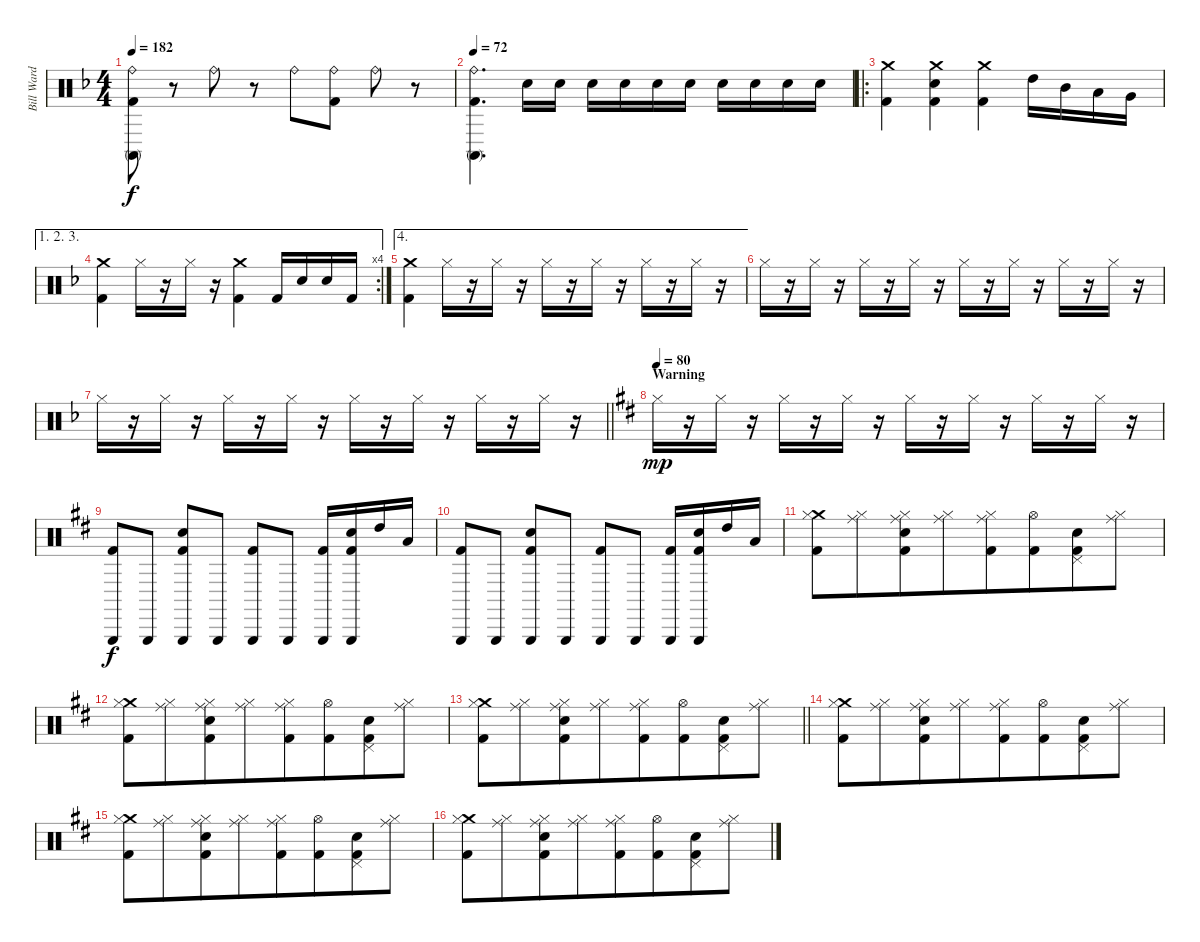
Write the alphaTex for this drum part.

\track ("Bill Ward" "Bill Ward") {instrument percussion}
\staff {score}
\articulation defaults
\ts (4 4)
\tempo 182
\clef neutral
\ks f
("Ride (bell)" "Conga high (mute)" "Kick (hit) 2").8{dy f} r.8 "Ride (bell)".8 r.8 "Ride (bell)".8 ("Ride (bell)" "Kick (hit) 2").8 "Ride (bell)".8 r.8 |
\tempo 72
("Ride (bell)" "Conga high (mute)" "Kick (hit) 2").4{d} "Snare (hit) 2".16 "Snare (hit) 2".16 "Snare (hit) 2".16 "Snare (hit) 2".16 "Snare (hit) 2".16 "Snare (hit) 2".16 "Snare (hit) 2".16 "Snare (hit) 2".16 "Snare (hit) 2".16 "Snare (hit) 2".16 |
\ro
("Crash medium (hit)" "Kick (hit) 2").4 ("Crash medium (hit)" "Snare (hit) 2" "Kick (hit) 2").4 ("Crash medium (hit)" "Kick (hit) 2").4 "High Tom (hit)".16 "Mid Tom (hit)".16 "Low Tom (hit)".16 "Very Low Tom (hit)".16 |
\ae (1 2 3)
\rc 4
("Crash medium (hit)" "Kick (hit) 2").4 "Hi-Hat (closed)".16 r.16 "Hi-Hat (closed)".16 r.16 ("Crash medium (hit)" "Kick (hit) 2").4 "Kick (hit) 2".16 "Snare (hit) 2".16 "Snare (hit) 2".16 "Kick (hit) 2".16 |
\ae 4
("Crash medium (hit)" "Kick (hit) 2").4 "Hi-Hat (closed)".16 r.16 "Hi-Hat (closed)".16 r.16 "Hi-Hat (closed)".16 r.16 "Hi-Hat (closed)".16 r.16 "Hi-Hat (closed)".16 r.16 "Hi-Hat (closed)".16 r.16 |
"Hi-Hat (closed)".16 r.16 "Hi-Hat (closed)".16 r.16 "Hi-Hat (closed)".16 r.16 "Hi-Hat (closed)".16 r.16 "Hi-Hat (closed)".16 r.16 "Hi-Hat (closed)".16 r.16 "Hi-Hat (closed)".16 r.16 "Hi-Hat (closed)".16 r.16 |
\barLineRight lightlight "Hi-Hat (closed)".16
r.16 "Hi-Hat (closed)".16 r.16 "Hi-Hat (closed)".16 r.16 "Hi-Hat (closed)".16 r.16 "Hi-Hat (closed)".16 r.16 "Hi-Hat (closed)".16 r.16 "Hi-Hat (closed)".16 r.16 "Hi-Hat (closed)".16 r.16 |
\section ("" "Warning")
\tempo 80
\ks d "Hi-Hat (closed)".16{dy mp}
r.16 "Hi-Hat (closed)".16 r.16 "Hi-Hat (closed)".16 r.16 "Hi-Hat (closed)".16 r.16 "Hi-Hat (closed)".16 r.16 "Hi-Hat (closed)".16 r.16 "Hi-Hat (closed)".16 r.16 "Hi-Hat (closed)".16 r.16 |
("Triangle (hit)" "Kick (hit) 2").8{dy f} "Triangle (hit)".8 ("Triangle (hit)" "Snare (hit) 2" "Kick (hit) 2").8 "Triangle (hit)".8 ("Triangle (hit)" "Kick (hit) 2").8 "Triangle (hit)".8 ("Triangle (hit)" "Kick (hit) 2").16 ("Triangle (hit)" "Snare (hit) 2" "Kick (hit) 2").16 "High Tom (hit)".16 "Low Tom (hit)".16 |
("Triangle (hit)" "Kick (hit) 2").8 "Triangle (hit)".8 ("Triangle (hit)" "Snare (hit) 2" "Kick (hit) 2").8 "Triangle (hit)".8 ("Triangle (hit)" "Kick (hit) 2").8 "Triangle (hit)".8 ("Triangle (hit)" "Kick (hit) 2").16 ("Triangle (hit)" "Snare (hit) 2" "Kick (hit) 2").16 "High Tom (hit)".16 "Low Tom (hit)".16 |
("Crash medium (hit)" "Hi-Hat (closed)" "Kick (hit) 2").8 ("Ride (middle)" "Hi-Hat (closed)").8{beam merge} ("Ride (middle)" "Hi-Hat (closed)" "Snare (hit) 2" "Kick (hit) 2").8 ("Ride (middle)" "Hi-Hat (closed)").8{beam merge} ("Ride (middle)" "Hi-Hat (closed)" "Kick (hit) 2").8 ("Hi-Hat (open)" "Kick (hit) 2").8{beam merge} ("Pedal Hi-Hat (hit)" "Snare (hit) 2" "Kick (hit) 2").8 ("Ride (middle)" "Hi-Hat (closed)").8 |
("Crash medium (hit)" "Hi-Hat (closed)" "Kick (hit) 2").8 ("Ride (middle)" "Hi-Hat (closed)").8{beam merge} ("Ride (middle)" "Hi-Hat (closed)" "Snare (hit) 2" "Kick (hit) 2").8 ("Ride (middle)" "Hi-Hat (closed)").8{beam merge} ("Ride (middle)" "Hi-Hat (closed)" "Kick (hit) 2").8 ("Hi-Hat (open)" "Kick (hit) 2").8{beam merge} ("Pedal Hi-Hat (hit)" "Snare (hit) 2" "Kick (hit) 2").8 ("Ride (middle)" "Hi-Hat (closed)").8 |
\barLineRight lightlight
("Crash medium (hit)" "Hi-Hat (closed)" "Kick (hit) 2").8 ("Ride (middle)" "Hi-Hat (closed)").8{beam merge} ("Ride (middle)" "Hi-Hat (closed)" "Snare (hit) 2" "Kick (hit) 2").8 ("Ride (middle)" "Hi-Hat (closed)").8{beam merge} ("Ride (middle)" "Hi-Hat (closed)" "Kick (hit) 2").8 ("Hi-Hat (open)" "Kick (hit) 2").8{beam merge} ("Pedal Hi-Hat (hit)" "Snare (hit) 2" "Kick (hit) 2").8 ("Ride (middle)" "Hi-Hat (closed)").8 |
("Crash medium (hit)" "Hi-Hat (closed)" "Kick (hit) 2").8 ("Ride (middle)" "Hi-Hat (closed)").8{beam merge} ("Ride (middle)" "Hi-Hat (closed)" "Snare (hit) 2" "Kick (hit) 2").8 ("Ride (middle)" "Hi-Hat (closed)").8{beam merge} ("Ride (middle)" "Hi-Hat (closed)" "Kick (hit) 2").8 ("Hi-Hat (open)" "Kick (hit) 2").8{beam merge} ("Pedal Hi-Hat (hit)" "Snare (hit) 2" "Kick (hit) 2").8 ("Ride (middle)" "Hi-Hat (closed)").8 |
("Crash medium (hit)" "Hi-Hat (closed)" "Kick (hit) 2").8 ("Ride (middle)" "Hi-Hat (closed)").8{beam merge} ("Ride (middle)" "Hi-Hat (closed)" "Snare (hit) 2" "Kick (hit) 2").8 ("Ride (middle)" "Hi-Hat (closed)").8{beam merge} ("Ride (middle)" "Hi-Hat (closed)" "Kick (hit) 2").8 ("Hi-Hat (open)" "Kick (hit) 2").8{beam merge} ("Pedal Hi-Hat (hit)" "Snare (hit) 2" "Kick (hit) 2").8 ("Ride (middle)" "Hi-Hat (closed)").8 |
("Crash medium (hit)" "Hi-Hat (closed)" "Kick (hit) 2").8 ("Ride (middle)" "Hi-Hat (closed)").8{beam merge} ("Ride (middle)" "Hi-Hat (closed)" "Snare (hit) 2" "Kick (hit) 2").8 ("Ride (middle)" "Hi-Hat (closed)").8{beam merge} ("Ride (middle)" "Hi-Hat (closed)" "Kick (hit) 2").8 ("Hi-Hat (open)" "Kick (hit) 2").8{beam merge} ("Pedal Hi-Hat (hit)" "Snare (hit) 2" "Kick (hit) 2").8 ("Ride (middle)" "Hi-Hat (closed)").8
